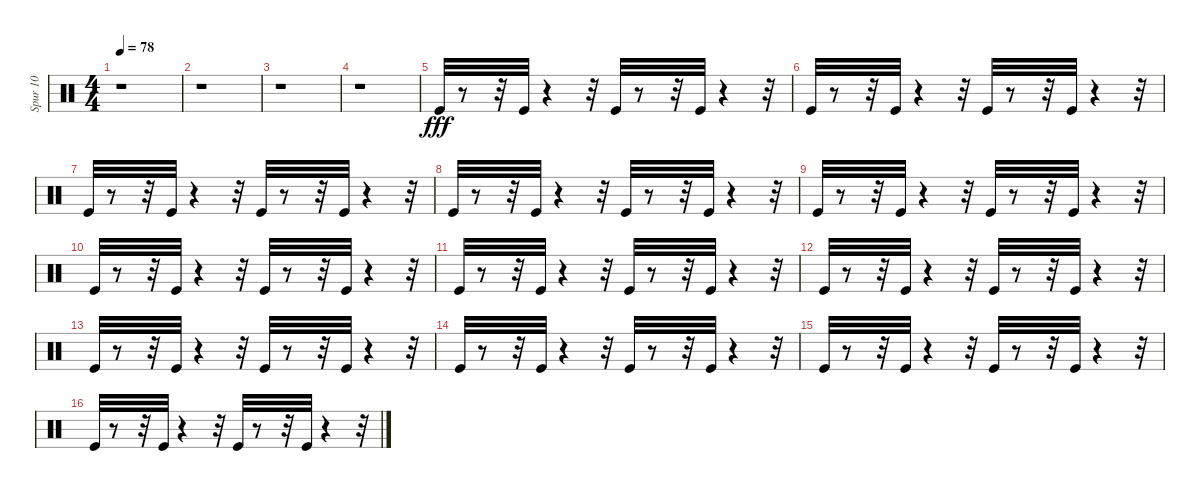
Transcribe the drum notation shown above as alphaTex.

\track ("Spur 10" "Spur 10") {instrument percussion}
\staff {score}
\articulation defaults
\ts (4 4)
\tempo 78
\clef neutral
\ks c
r.1{dy fff} |
r.1 |
r.1 |
r.1 |
"Kick (hit)".32{volume 15 balance 8} r.8 r.32 "Kick (hit)".32 r.4 r.32 "Kick (hit)".32 r.8 r.32 "Kick (hit)".32 r.4 r.32 |
"Kick (hit)".32 r.8 r.32 "Kick (hit)".32 r.4 r.32 "Kick (hit)".32 r.8 r.32 "Kick (hit)".32 r.4 r.32 |
"Kick (hit)".32 r.8 r.32 "Kick (hit)".32 r.4 r.32 "Kick (hit)".32 r.8 r.32 "Kick (hit)".32 r.4 r.32 |
"Kick (hit)".32 r.8 r.32 "Kick (hit)".32 r.4 r.32 "Kick (hit)".32 r.8 r.32 "Kick (hit)".32 r.4 r.32 |
"Kick (hit)".32 r.8 r.32 "Kick (hit)".32 r.4 r.32 "Kick (hit)".32 r.8 r.32 "Kick (hit)".32 r.4 r.32 |
"Kick (hit)".32 r.8 r.32 "Kick (hit)".32 r.4 r.32 "Kick (hit)".32 r.8 r.32 "Kick (hit)".32 r.4 r.32 |
"Kick (hit)".32 r.8 r.32 "Kick (hit)".32 r.4 r.32 "Kick (hit)".32 r.8 r.32 "Kick (hit)".32 r.4 r.32 |
"Kick (hit)".32 r.8 r.32 "Kick (hit)".32 r.4 r.32 "Kick (hit)".32 r.8 r.32 "Kick (hit)".32 r.4 r.32 |
"Kick (hit)".32 r.8 r.32 "Kick (hit)".32 r.4 r.32 "Kick (hit)".32 r.8 r.32 "Kick (hit)".32 r.4 r.32 |
"Kick (hit)".32 r.8 r.32 "Kick (hit)".32 r.4 r.32 "Kick (hit)".32 r.8 r.32 "Kick (hit)".32 r.4 r.32 |
"Kick (hit)".32 r.8 r.32 "Kick (hit)".32 r.4 r.32 "Kick (hit)".32 r.8 r.32 "Kick (hit)".32 r.4 r.32 |
"Kick (hit)".32 r.8 r.32 "Kick (hit)".32 r.4 r.32 "Kick (hit)".32 r.8 r.32 "Kick (hit)".32 r.4 r.32
